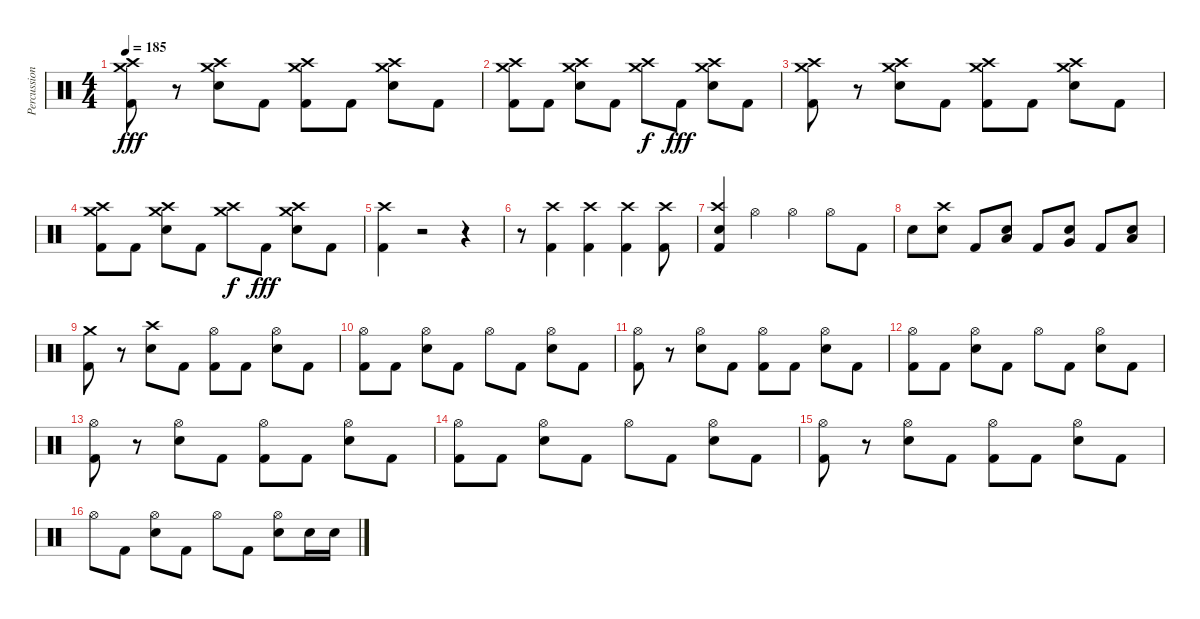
\track ("Percussion" "Percussion") {instrument percussion}
\staff {score}
\articulation defaults
\ts (4 4)
\tempo 185
\clef neutral
\ks c
("Kick (hit) 2" "Crash high (hit)" "Crash medium (hit)").8{dy fff} r.8 ("Electric Snare (hit)" "Crash medium (hit)" "Crash high (hit)").8 "Kick (hit) 2".8 ("Kick (hit) 2" "Crash medium (hit)" "Crash high (hit)").8 "Kick (hit) 2".8 ("Electric Snare (hit)" "Crash medium (hit)" "Crash high (hit)").8 "Kick (hit) 2".8 |
("Kick (hit) 2" "Crash medium (hit)" "Crash high (hit)").8 "Kick (hit) 2".8 ("Electric Snare (hit)" "Crash medium (hit)" "Crash high (hit)").8 "Kick (hit) 2".8 ("Crash medium (hit)" "Crash high (hit)").8{dy f} "Kick (hit) 2".8{dy fff} ("Electric Snare (hit)" "Crash medium (hit)" "Crash high (hit)").8 "Kick (hit) 2".8 |
("Kick (hit) 2" "Crash medium (hit)" "Crash high (hit)").8 r.8 ("Electric Snare (hit)" "Crash medium (hit)" "Crash high (hit)").8 "Kick (hit) 2".8 ("Kick (hit) 2" "Crash medium (hit)" "Crash high (hit)").8 "Kick (hit) 2".8 ("Electric Snare (hit)" "Crash medium (hit)" "Crash high (hit)").8 "Kick (hit) 2".8 |
("Kick (hit) 2" "Crash medium (hit)" "Crash high (hit)").8 "Kick (hit) 2".8 ("Electric Snare (hit)" "Crash medium (hit)" "Crash high (hit)").8 "Kick (hit) 2".8 ("Crash medium (hit)" "Crash high (hit)").8{dy f} "Kick (hit) 2".8{dy fff} ("Electric Snare (hit)" "Crash medium (hit)" "Crash high (hit)").8 "Kick (hit) 2".8 |
("Kick (hit) 2" "Crash high (hit)").4 r.2 r.4 |
r.8 ("Kick (hit) 2" "Crash high (hit)").4 ("Kick (hit) 2" "Crash high (hit)").4 ("Kick (hit) 2" "Crash high (hit)").4 ("Kick (hit) 2" "Crash high (hit)").8 |
("Kick (hit) 2" "Crash high (hit)" "Electric Snare (hit)").4 "Hi-Hat (open)".4 "Hi-Hat (open)".4 "Hi-Hat (open)".8 "Kick (hit) 2".8 |
"Electric Snare (hit)".8 ("Crash high (hit)" "Electric Snare (hit)").8 "Kick (hit) 2".8 ("Electric Snare (hit)" "Low Tom (hit)").8 "Kick (hit) 2".8 ("Electric Snare (hit)" "Very Low Tom (hit)").8 "Kick (hit) 2".8 ("Electric Snare (hit)" "Low Floor Tom (hit)").8 |
("Kick (hit) 2" "Crash medium (hit)").8 r.8 ("Electric Snare (hit)" "Crash high (hit)").8 "Kick (hit) 2".8 ("Kick (hit) 2" "Hi-Hat (open)").8 "Kick (hit) 2".8 ("Electric Snare (hit)" "Hi-Hat (open)").8 "Kick (hit) 2".8 |
("Kick (hit) 2" "Hi-Hat (open)").8 "Kick (hit) 2".8 ("Electric Snare (hit)" "Hi-Hat (open)").8 "Kick (hit) 2".8 "Hi-Hat (open)".8 "Kick (hit) 2".8 ("Electric Snare (hit)" "Hi-Hat (open)").8 "Kick (hit) 2".8 |
("Kick (hit) 2" "Hi-Hat (open)").8 r.8 ("Electric Snare (hit)" "Hi-Hat (open)").8 "Kick (hit) 2".8 ("Kick (hit) 2" "Hi-Hat (open)").8 "Kick (hit) 2".8 ("Electric Snare (hit)" "Hi-Hat (open)").8 "Kick (hit) 2".8 |
("Kick (hit) 2" "Hi-Hat (open)").8 "Kick (hit) 2".8 ("Electric Snare (hit)" "Hi-Hat (open)").8 "Kick (hit) 2".8 "Hi-Hat (open)".8 "Kick (hit) 2".8 ("Electric Snare (hit)" "Hi-Hat (open)").8 "Kick (hit) 2".8 |
("Kick (hit) 2" "Hi-Hat (open)").8 r.8 ("Electric Snare (hit)" "Hi-Hat (open)").8 "Kick (hit) 2".8 ("Kick (hit) 2" "Hi-Hat (open)").8 "Kick (hit) 2".8 ("Electric Snare (hit)" "Hi-Hat (open)").8 "Kick (hit) 2".8 |
("Kick (hit) 2" "Hi-Hat (open)").8 "Kick (hit) 2".8 ("Electric Snare (hit)" "Hi-Hat (open)").8 "Kick (hit) 2".8 "Hi-Hat (open)".8 "Kick (hit) 2".8 ("Electric Snare (hit)" "Hi-Hat (open)").8 "Kick (hit) 2".8 |
("Kick (hit) 2" "Hi-Hat (open)").8 r.8 ("Electric Snare (hit)" "Hi-Hat (open)").8 "Kick (hit) 2".8 ("Kick (hit) 2" "Hi-Hat (open)").8 "Kick (hit) 2".8 ("Electric Snare (hit)" "Hi-Hat (open)").8 "Kick (hit) 2".8 |
"Hi-Hat (open)".8 "Kick (hit) 2".8 ("Electric Snare (hit)" "Hi-Hat (open)").8 "Kick (hit) 2".8 "Hi-Hat (open)".8 "Kick (hit) 2".8 ("Electric Snare (hit)" "Hi-Hat (open)").8 "Electric Snare (hit)".16 "Electric Snare (hit)".16
